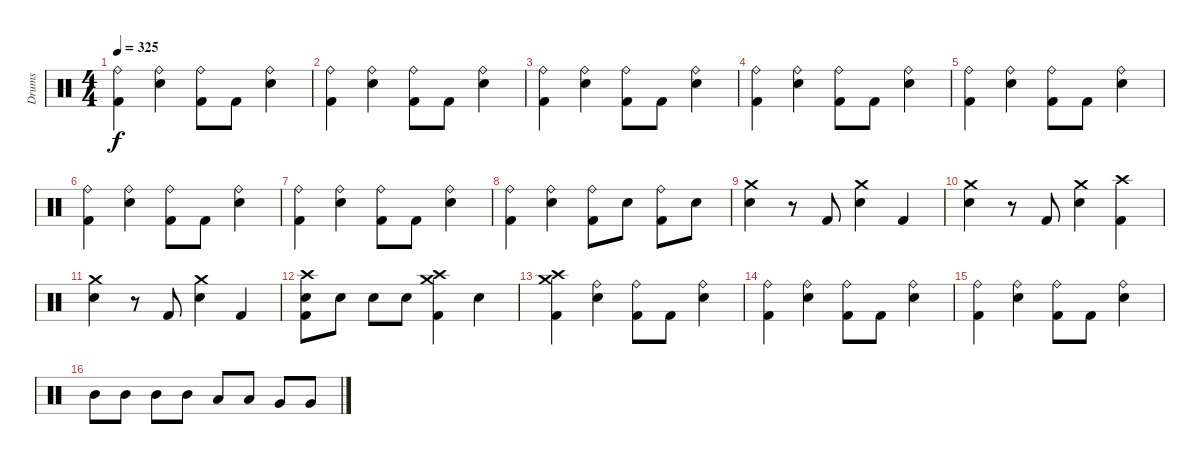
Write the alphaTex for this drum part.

\track ("Drums" "Drums") {instrument percussion}
\staff {score}
\articulation defaults
\ts (4 4)
\tempo 325
\clef neutral
\ks c
("Ride (bell)" "Kick (hit) 2").4{dy f} ("Electric Snare (hit)" "Ride (bell)").4 ("Kick (hit) 2" "Ride (bell)").8 "Kick (hit) 2".8 ("Electric Snare (hit)" "Ride (bell)").4 |
("Kick (hit) 2" "Ride (bell)").4 ("Electric Snare (hit)" "Ride (bell)").4 ("Kick (hit) 2" "Ride (bell)").8 "Kick (hit) 2".8 ("Electric Snare (hit)" "Ride (bell)").4 |
("Kick (hit) 2" "Ride (bell)").4 ("Electric Snare (hit)" "Ride (bell)").4 ("Kick (hit) 2" "Ride (bell)").8 "Kick (hit) 2".8 ("Electric Snare (hit)" "Ride (bell)").4 |
("Kick (hit) 2" "Ride (bell)").4 ("Electric Snare (hit)" "Ride (bell)").4 ("Kick (hit) 2" "Ride (bell)").8 "Kick (hit) 2".8 ("Electric Snare (hit)" "Ride (bell)").4 |
("Ride (bell)" "Kick (hit) 2").4 ("Electric Snare (hit)" "Ride (bell)").4 ("Kick (hit) 2" "Ride (bell)").8 "Kick (hit) 2".8 ("Electric Snare (hit)" "Ride (bell)").4 |
("Kick (hit) 2" "Ride (bell)").4 ("Electric Snare (hit)" "Ride (bell)").4 ("Kick (hit) 2" "Ride (bell)").8 "Kick (hit) 2".8 ("Electric Snare (hit)" "Ride (bell)").4 |
("Kick (hit) 2" "Ride (bell)").4 ("Electric Snare (hit)" "Ride (bell)").4 ("Kick (hit) 2" "Ride (bell)").8 "Kick (hit) 2".8 ("Electric Snare (hit)" "Ride (bell)").4 |
("Ride (bell)" "Kick (hit) 2").4 ("Electric Snare (hit)" "Ride (bell)").4 ("Kick (hit) 2" "Ride (bell)").8 "Electric Snare (hit)".8 ("Kick (hit) 2" "Ride (bell)").8 "Electric Snare (hit)".8 |
("Electric Snare (hit)" "Crash medium (hit)").4 r.8 "Kick (hit) 2".8 ("Electric Snare (hit)" "Crash medium (hit)").4 "Kick (hit) 2".4 |
("Electric Snare (hit)" "Crash medium (hit)").4 r.8 "Kick (hit) 2".8 ("Snare (hit) 2" "Crash medium (hit)").4 ("Kick (hit) 2" "Crash high (hit)").4 |
("Electric Snare (hit)" "Crash medium (hit)").4 r.8 "Kick (hit) 2".8 ("Electric Snare (hit)" "Crash medium (hit)").4 "Kick (hit) 2".4 |
("Kick (hit) 2" "Electric Snare (hit)" "Crash high (hit)").8 "Electric Snare (hit)".8 "Electric Snare (hit)".8 "Electric Snare (hit)".8 ("Kick (hit) 2" "Crash high (hit)" "Crash medium (hit)").4 "Electric Snare (hit)".4 |
("Kick (hit) 2" "Crash high (hit)" "Crash medium (hit)").4 ("Electric Snare (hit)" "Ride (bell)").4 ("Kick (hit) 2" "Ride (bell)").8 "Kick (hit) 2".8 ("Electric Snare (hit)" "Ride (bell)").4 |
("Kick (hit) 2" "Ride (bell)").4 ("Electric Snare (hit)" "Ride (bell)").4 ("Kick (hit) 2" "Ride (bell)").8 "Kick (hit) 2".8 ("Electric Snare (hit)" "Ride (bell)").4 |
("Kick (hit) 2" "Ride (bell)").4 ("Electric Snare (hit)" "Ride (bell)").4 ("Kick (hit) 2" "Ride (bell)").8 "Kick (hit) 2".8 ("Electric Snare (hit)" "Ride (bell)").4 |
"Mid Tom (hit)".8 "Mid Tom (hit)".8 "Mid Tom (hit)".8 "Mid Tom (hit)".8 "Low Tom (hit)".8 "Low Tom (hit)".8 "Very Low Tom (hit)".8 "Very Low Tom (hit)".8
